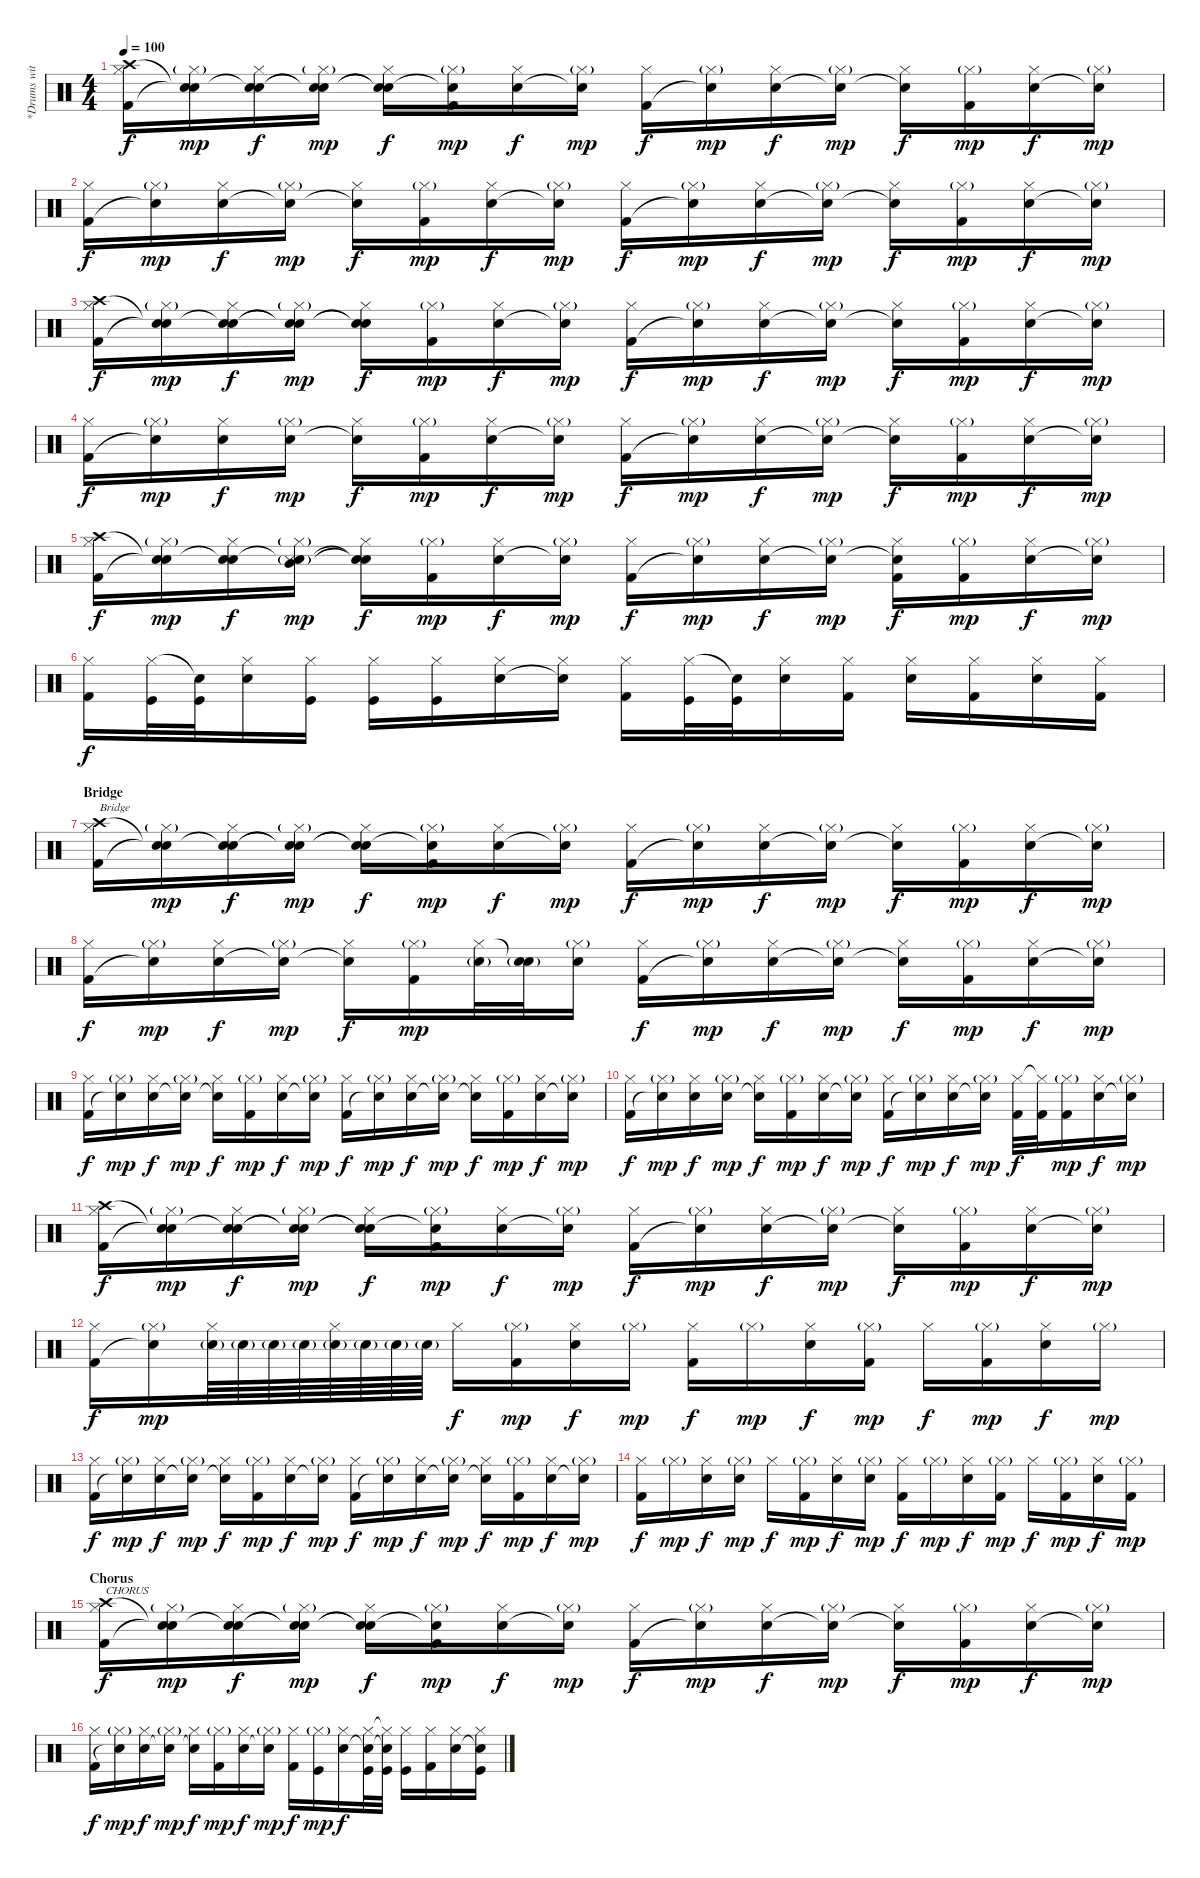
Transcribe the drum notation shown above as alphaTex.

\track ("*Drums with sampled drums (Rob and Joe)" "*Drums wit") {instrument percussion}
\staff {score}
\articulation defaults
\ts (4 4)
\tempo 100
\clef neutral
\ks c
("Crash high (hit)" "Hi-Hat (closed)" "Kick (hit) 2").16{dy f} ("Snare (hit)"{t} "Hi-Hat (closed)"{g} "Snare (hit)"{t}).16{dy mp} ("Snare (hit)"{t} "Hi-Hat (closed)" "Electric Snare (hit)").16{dy f} ("Snare (hit)"{t} "Hi-Hat (closed)"{g} "Snare (hit)"{t}).16{dy mp} ("Snare (hit)"{t} "Hi-Hat (closed)" "Snare (hit)"{t}).16{dy f} ("Snare (hit)"{t} "Hi-Hat (closed)"{g} "Kick (hit) 2").16{dy mp} ("Hi-Hat (closed)" "Electric Snare (hit)").16{dy f} ("Hi-Hat (closed)"{g} "Snare (hit)"{t}).16{dy mp} ("Hi-Hat (closed)" "Kick (hit) 2").16{dy f} ("Hi-Hat (closed)"{g} "Snare (hit)"{t}).16{dy mp} ("Hi-Hat (closed)" "Electric Snare (hit)").16{dy f} ("Hi-Hat (closed)"{g} "Snare (hit)"{t}).16{dy mp} ("Hi-Hat (closed)" "Snare (hit)"{t}).16{dy f} ("Hi-Hat (closed)"{g} "Kick (hit) 2").16{dy mp} ("Hi-Hat (closed)" "Electric Snare (hit)").16{dy f} ("Hi-Hat (closed)"{g} "Snare (hit)"{t}).16{dy mp} |
("Hi-Hat (closed)" "Kick (hit) 2").16{dy f} ("Hi-Hat (closed)"{g} "Snare (hit)"{t}).16{dy mp} ("Hi-Hat (closed)" "Electric Snare (hit)").16{dy f} ("Hi-Hat (closed)"{g} "Snare (hit)"{t}).16{dy mp} ("Hi-Hat (closed)" "Snare (hit)"{t}).16{dy f} ("Hi-Hat (closed)"{g} "Kick (hit) 2").16{dy mp} ("Hi-Hat (closed)" "Electric Snare (hit)").16{dy f} ("Hi-Hat (closed)"{g} "Snare (hit)"{t}).16{dy mp} ("Hi-Hat (closed)" "Kick (hit) 2").16{dy f} ("Hi-Hat (closed)"{g} "Snare (hit)"{t}).16{dy mp} ("Hi-Hat (closed)" "Electric Snare (hit)").16{dy f} ("Hi-Hat (closed)"{g} "Snare (hit)"{t}).16{dy mp} ("Hi-Hat (closed)" "Snare (hit)"{t}).16{dy f} ("Hi-Hat (closed)"{g} "Kick (hit) 2").16{dy mp} ("Hi-Hat (closed)" "Electric Snare (hit)").16{dy f} ("Hi-Hat (closed)"{g} "Snare (hit)"{t}).16{dy mp} |
("Crash high (hit)" "Hi-Hat (closed)" "Kick (hit) 2").16{dy f} ("Snare (hit)"{t} "Hi-Hat (closed)"{g} "Snare (hit)"{t}).16{dy mp} ("Snare (hit)"{t} "Hi-Hat (closed)" "Electric Snare (hit)").16{dy f} ("Snare (hit)"{t} "Hi-Hat (closed)"{g} "Snare (hit)"{t}).16{dy mp} ("Snare (hit)"{t} "Hi-Hat (closed)" "Snare (hit)"{t}).16{dy f} ("Hi-Hat (closed)"{g} "Kick (hit) 2").16{dy mp} ("Hi-Hat (closed)" "Electric Snare (hit)").16{dy f} ("Hi-Hat (closed)"{g} "Snare (hit)"{t}).16{dy mp} ("Hi-Hat (closed)" "Kick (hit) 2").16{dy f} ("Hi-Hat (closed)"{g} "Snare (hit)"{t}).16{dy mp} ("Hi-Hat (closed)" "Electric Snare (hit)").16{dy f} ("Hi-Hat (closed)"{g} "Snare (hit)"{t}).16{dy mp} ("Hi-Hat (closed)" "Snare (hit)"{t}).16{dy f} ("Hi-Hat (closed)"{g} "Kick (hit) 2").16{dy mp} ("Hi-Hat (closed)" "Electric Snare (hit)").16{dy f} ("Hi-Hat (closed)"{g} "Snare (hit)"{t}).16{dy mp} |
("Hi-Hat (closed)" "Kick (hit) 2").16{dy f} ("Hi-Hat (closed)"{g} "Snare (hit)"{t}).16{dy mp} ("Hi-Hat (closed)" "Electric Snare (hit)").16{dy f} ("Hi-Hat (closed)"{g} "Electric Snare (hit)").16{dy mp} ("Hi-Hat (closed)" "Snare (hit)"{t}).16{dy f} ("Hi-Hat (closed)"{g} "Kick (hit) 2").16{dy mp} ("Hi-Hat (closed)" "Electric Snare (hit)").16{dy f} ("Hi-Hat (closed)"{g} "Snare (hit)"{t}).16{dy mp} ("Hi-Hat (closed)" "Kick (hit) 2").16{dy f} ("Hi-Hat (closed)"{g} "Snare (hit)"{t}).16{dy mp} ("Hi-Hat (closed)" "Electric Snare (hit)").16{dy f} ("Hi-Hat (closed)"{g} "Snare (hit)"{t}).16{dy mp} ("Hi-Hat (closed)" "Snare (hit)"{t}).16{dy f} ("Hi-Hat (closed)"{g} "Kick (hit) 2").16{dy mp} ("Hi-Hat (closed)" "Electric Snare (hit)").16{dy f} ("Hi-Hat (closed)"{g} "Snare (hit)"{t}).16{dy mp} |
("Crash high (hit)" "Hi-Hat (closed)" "Kick (hit) 2").16{dy f} ("Snare (hit)"{t} "Hi-Hat (closed)"{g} "Snare (hit)"{t}).16{dy mp} ("Snare (hit)"{t} "Hi-Hat (closed)" "Electric Snare (hit)").16{dy f} ("Snare (hit)"{t} "Hi-Hat (closed)"{g} "Mid Tom (hit)" "Metronome (hit)"{g}).16{dy mp} ("Snare (hit)"{t} "Hi-Hat (closed)" "Snare (hit)"{t}).16{dy f} ("Hi-Hat (closed)"{g} "Kick (hit) 2").16{dy mp} ("Hi-Hat (closed)" "Electric Snare (hit)").16{dy f} ("Hi-Hat (closed)"{g} "Snare (hit)"{t}).16{dy mp} ("Hi-Hat (closed)" "Kick (hit) 2").16{dy f} ("Hi-Hat (closed)"{g} "Snare (hit)"{t}).16{dy mp} ("Hi-Hat (closed)" "Electric Snare (hit)").16{dy f} ("Hi-Hat (closed)"{g} "Snare (hit)"{t}).16{dy mp} ("Hi-Hat (closed)" "Snare (hit)"{t} "Kick (hit) 2").16{dy f} ("Hi-Hat (closed)"{g} "Kick (hit) 2").16{dy mp} ("Hi-Hat (closed)" "Electric Snare (hit)").16{dy f} ("Hi-Hat (closed)"{g} "Snare (hit)"{t}).16{dy mp} |
("Hi-Hat (closed)" "Kick (hit) 2").16{dy f} ("Hi-Hat (closed)" "Kick (hit)").32 ("Snare (hit)"{t} "Kick (hit)").32 ("Hi-Hat (closed)" "Electric Snare (hit)").16 ("Hi-Hat (closed)" "Kick (hit)").16 ("Hi-Hat (closed)" "Kick (hit)").16 ("Hi-Hat (closed)" "Kick (hit)").16 ("Hi-Hat (closed)" "Electric Snare (hit)").16 ("Hi-Hat (closed)" "Snare (hit)"{t}).16 ("Hi-Hat (closed)" "Kick (hit) 2").16 ("Hi-Hat (closed)" "Kick (hit)").32 ("Snare (hit)"{t} "Kick (hit)").32 ("Hi-Hat (closed)" "Electric Snare (hit)").16 ("Hi-Hat (closed)" "Kick (hit) 2").16 ("Hi-Hat (closed)" "Electric Snare (hit)").16 ("Hi-Hat (closed)" "Kick (hit) 2").16 ("Hi-Hat (closed)" "Electric Snare (hit)").16 ("Hi-Hat (closed)" "Kick (hit) 2").16 |
\section ("" "Bridge")
("Crash high (hit)" "Hi-Hat (closed)" "Kick (hit) 2").16{txt "Bridge"} ("Snare (hit)"{t} "Hi-Hat (closed)"{g} "Snare (hit)"{t}).16{dy mp} ("Snare (hit)"{t} "Hi-Hat (closed)" "Electric Snare (hit)").16{dy f} ("Snare (hit)"{t} "Hi-Hat (closed)"{g} "Snare (hit)"{t}).16{dy mp} ("Snare (hit)"{t} "Hi-Hat (closed)" "Snare (hit)"{t}).16{dy f} ("Snare (hit)"{t} "Hi-Hat (closed)"{g} "Kick (hit) 2").16{dy mp} ("Hi-Hat (closed)" "Electric Snare (hit)").16{dy f} ("Hi-Hat (closed)"{g} "Snare (hit)"{t}).16{dy mp} ("Hi-Hat (closed)" "Kick (hit) 2").16{dy f} ("Hi-Hat (closed)"{g} "Snare (hit)"{t}).16{dy mp} ("Hi-Hat (closed)" "Electric Snare (hit)").16{dy f} ("Hi-Hat (closed)"{g} "Snare (hit)"{t}).16{dy mp} ("Hi-Hat (closed)" "Snare (hit)"{t}).16{dy f} ("Hi-Hat (closed)"{g} "Kick (hit) 2").16{dy mp} ("Hi-Hat (closed)" "Electric Snare (hit)").16{dy f} ("Hi-Hat (closed)"{g} "Snare (hit)"{t}).16{dy mp} |
("Hi-Hat (closed)" "Kick (hit) 2").16{dy f} ("Hi-Hat (closed)"{g} "Snare (hit)"{t}).16{dy mp} ("Hi-Hat (closed)" "Electric Snare (hit)").16{dy f} ("Hi-Hat (closed)"{g} "Snare (hit)"{t}).16{dy mp} ("Hi-Hat (closed)" "Snare (hit)"{t}).16{dy f} ("Hi-Hat (closed)"{g} "Kick (hit) 2").16{dy mp} ("Hi-Hat (closed)" "Electric Snare (hit)"{g}).32 ("Snare (hit)"{t} "Electric Snare (hit)"{g}).32 ("Hi-Hat (closed)"{g} "Electric Snare (hit)").16 ("Hi-Hat (closed)" "Kick (hit) 2").16{dy f} ("Hi-Hat (closed)"{g} "Snare (hit)"{t}).16{dy mp} ("Hi-Hat (closed)" "Electric Snare (hit)").16{dy f} ("Hi-Hat (closed)"{g} "Snare (hit)"{t}).16{dy mp} ("Hi-Hat (closed)" "Snare (hit)"{t}).16{dy f} ("Hi-Hat (closed)"{g} "Kick (hit) 2").16{dy mp} ("Hi-Hat (closed)" "Electric Snare (hit)").16{dy f} ("Hi-Hat (closed)"{g} "Snare (hit)"{t}).16{dy mp} |
("Hi-Hat (closed)" "Kick (hit) 2").16{dy f} ("Hi-Hat (closed)"{g} "Snare (hit)"{t}).16{dy mp} ("Hi-Hat (closed)" "Electric Snare (hit)").16{dy f} ("Hi-Hat (closed)"{g} "Snare (hit)"{t}).16{dy mp} ("Hi-Hat (closed)" "Snare (hit)"{t}).16{dy f} ("Hi-Hat (closed)"{g} "Kick (hit) 2").16{dy mp} ("Hi-Hat (closed)" "Electric Snare (hit)").16{dy f} ("Hi-Hat (closed)"{g} "Snare (hit)"{t}).16{dy mp} ("Hi-Hat (closed)" "Kick (hit) 2").16{dy f} ("Hi-Hat (closed)"{g} "Snare (hit)"{t}).16{dy mp} ("Hi-Hat (closed)" "Electric Snare (hit)").16{dy f} ("Hi-Hat (closed)"{g} "Snare (hit)"{t}).16{dy mp} ("Hi-Hat (closed)" "Snare (hit)"{t}).16{dy f} ("Hi-Hat (closed)"{g} "Kick (hit) 2").16{dy mp} ("Hi-Hat (closed)" "Electric Snare (hit)").16{dy f} ("Hi-Hat (closed)"{g} "Snare (hit)"{t}).16{dy mp} |
("Hi-Hat (closed)" "Kick (hit) 2").16{dy f} ("Hi-Hat (closed)"{g} "Snare (hit)"{t}).16{dy mp} ("Hi-Hat (closed)" "Electric Snare (hit)").16{dy f} ("Hi-Hat (closed)"{g} "Electric Snare (hit)").16{dy mp} ("Hi-Hat (closed)" "Snare (hit)"{t}).16{dy f} ("Hi-Hat (closed)"{g} "Kick (hit) 2").16{dy mp} ("Hi-Hat (closed)" "Electric Snare (hit)").16{dy f} ("Hi-Hat (closed)"{g} "Snare (hit)"{t}).16{dy mp} ("Hi-Hat (closed)" "Kick (hit) 2").16{dy f} ("Hi-Hat (closed)"{g} "Snare (hit)"{t}).16{dy mp} ("Hi-Hat (closed)" "Electric Snare (hit)").16{dy f} ("Hi-Hat (closed)"{g} "Snare (hit)"{t}).16{dy mp} ("Hi-Hat (closed)" "Kick (hit) 2").32{dy f} ("Hi-Hat (closed)"{t} "Kick (hit) 2").32 ("Hi-Hat (closed)"{g} "Kick (hit) 2").16{dy mp} ("Hi-Hat (closed)" "Electric Snare (hit)").16{dy f} ("Hi-Hat (closed)"{g} "Snare (hit)"{t}).16{dy mp} |
("Crash high (hit)" "Hi-Hat (closed)" "Kick (hit) 2").16{dy f} ("Snare (hit)"{t} "Hi-Hat (closed)"{g} "Snare (hit)"{t}).16{dy mp} ("Snare (hit)"{t} "Hi-Hat (closed)" "Electric Snare (hit)").16{dy f} ("Snare (hit)"{t} "Hi-Hat (closed)"{g} "Snare (hit)"{t}).16{dy mp} ("Snare (hit)"{t} "Hi-Hat (closed)" "Snare (hit)"{t}).16{dy f} ("Snare (hit)"{t} "Hi-Hat (closed)"{g} "Kick (hit) 2").16{dy mp} ("Hi-Hat (closed)" "Electric Snare (hit)").16{dy f} ("Hi-Hat (closed)"{g} "Snare (hit)"{t}).16{dy mp} ("Hi-Hat (closed)" "Kick (hit) 2").16{dy f} ("Hi-Hat (closed)"{g} "Snare (hit)"{t}).16{dy mp} ("Hi-Hat (closed)" "Electric Snare (hit)").16{dy f} ("Hi-Hat (closed)"{g} "Snare (hit)"{t}).16{dy mp} ("Hi-Hat (closed)" "Snare (hit)"{t}).16{dy f} ("Hi-Hat (closed)"{g} "Kick (hit) 2").16{dy mp} ("Hi-Hat (closed)" "Electric Snare (hit)").16{dy f} ("Hi-Hat (closed)"{g} "Snare (hit)"{t}).16{dy mp} |
("Hi-Hat (closed)" "Kick (hit) 2").16{dy f} ("Hi-Hat (closed)"{g} "Snare (hit)"{t}).16{dy mp} ("Hi-Hat (closed)" "Electric Snare (hit)"{g}).64 "Electric Snare (hit)"{g}.64 "Electric Snare (hit)"{g}.64 "Electric Snare (hit)"{g}.64 ("Hi-Hat (closed)" "Electric Snare (hit)"{g}).64 "Electric Snare (hit)"{g}.64 "Electric Snare (hit)"{g}.64 "Electric Snare (hit)"{g}.64 "Hi-Hat (closed)".16{dy f} ("Hi-Hat (closed)"{g} "Kick (hit) 2").16{dy mp} ("Hi-Hat (closed)" "Electric Snare (hit)").16{dy f} "Hi-Hat (closed)"{g}.16{dy mp} ("Hi-Hat (closed)" "Kick (hit) 2").16{dy f} "Hi-Hat (closed)"{g}.16{dy mp} ("Hi-Hat (closed)" "Electric Snare (hit)").16{dy f} ("Hi-Hat (closed)"{g} "Kick (hit) 2").16{dy mp} "Hi-Hat (closed)".16{dy f} ("Hi-Hat (closed)"{g} "Kick (hit) 2").16{dy mp} ("Hi-Hat (closed)" "Electric Snare (hit)").16{dy f} "Hi-Hat (closed)"{g}.16{dy mp} |
("Hi-Hat (closed)" "Kick (hit) 2").16{dy f} ("Hi-Hat (closed)"{g} "Snare (hit)"{t}).16{dy mp} ("Hi-Hat (closed)" "Electric Snare (hit)").16{dy f} ("Hi-Hat (closed)"{g} "Snare (hit)"{t}).16{dy mp} ("Hi-Hat (closed)" "Snare (hit)"{t}).16{dy f} ("Hi-Hat (closed)"{g} "Kick (hit) 2").16{dy mp} ("Hi-Hat (closed)" "Electric Snare (hit)").16{dy f} ("Hi-Hat (closed)"{g} "Snare (hit)"{t}).16{dy mp} ("Hi-Hat (closed)" "Kick (hit) 2").16{dy f} ("Hi-Hat (closed)"{g} "Snare (hit)"{t}).16{dy mp} ("Hi-Hat (closed)" "Electric Snare (hit)").16{dy f} ("Hi-Hat (closed)"{g} "Snare (hit)"{t}).16{dy mp} ("Hi-Hat (closed)" "Snare (hit)"{t}).16{dy f} ("Hi-Hat (closed)"{g} "Kick (hit) 2").16{dy mp} ("Hi-Hat (closed)" "Electric Snare (hit)").16{dy f} ("Hi-Hat (closed)"{g} "Snare (hit)"{t}).16{dy mp} |
("Hi-Hat (closed)" "Kick (hit) 2").16{dy f} "Hi-Hat (closed)"{g}.16{dy mp} ("Hi-Hat (closed)" "Electric Snare (hit)").16{dy f} ("Hi-Hat (closed)"{g} "Electric Snare (hit)").16{dy mp} "Hi-Hat (closed)".16{dy f} ("Hi-Hat (closed)"{g} "Kick (hit) 2").16{dy mp} ("Hi-Hat (closed)" "Electric Snare (hit)").16{dy f} ("Hi-Hat (closed)"{g} "Electric Snare (hit)").16{dy mp} ("Hi-Hat (closed)" "Kick (hit) 2").16{dy f} "Hi-Hat (closed)"{g}.16{dy mp} ("Hi-Hat (closed)" "Electric Snare (hit)").16{dy f} ("Hi-Hat (closed)"{g} "Kick (hit) 2").16{dy mp} "Hi-Hat (closed)".16{dy f} ("Hi-Hat (closed)"{g} "Kick (hit) 2").16{dy mp} ("Hi-Hat (closed)" "Electric Snare (hit)").16{dy f} ("Hi-Hat (closed)"{g} "Kick (hit) 2").16{dy mp} |
\section ("" "Chorus")
("Crash high (hit)" "Hi-Hat (closed)" "Kick (hit) 2").16{txt "CHORUS" dy f} ("Snare (hit)"{t} "Hi-Hat (closed)"{g} "Snare (hit)"{t}).16{dy mp} ("Snare (hit)"{t} "Hi-Hat (closed)" "Electric Snare (hit)").16{dy f} ("Snare (hit)"{t} "Hi-Hat (closed)"{g} "Snare (hit)"{t}).16{dy mp} ("Snare (hit)"{t} "Hi-Hat (closed)" "Snare (hit)"{t}).16{dy f} ("Snare (hit)"{t} "Hi-Hat (closed)"{g} "Kick (hit) 2").16{dy mp} ("Hi-Hat (closed)" "Electric Snare (hit)").16{dy f} ("Hi-Hat (closed)"{g} "Snare (hit)"{t}).16{dy mp} ("Hi-Hat (closed)" "Kick (hit) 2").16{dy f} ("Hi-Hat (closed)"{g} "Snare (hit)"{t}).16{dy mp} ("Hi-Hat (closed)" "Electric Snare (hit)").16{dy f} ("Hi-Hat (closed)"{g} "Snare (hit)"{t}).16{dy mp} ("Hi-Hat (closed)" "Snare (hit)"{t}).16{dy f} ("Hi-Hat (closed)"{g} "Kick (hit) 2").16{dy mp} ("Hi-Hat (closed)" "Electric Snare (hit)").16{dy f} ("Hi-Hat (closed)"{g} "Snare (hit)"{t}).16{dy mp} |
("Hi-Hat (closed)" "Kick (hit) 2").16{dy f} ("Hi-Hat (closed)"{g} "Snare (hit)"{t}).16{dy mp} ("Hi-Hat (closed)" "Electric Snare (hit)").16{dy f} ("Hi-Hat (closed)"{g} "Snare (hit)"{t}).16{dy mp} ("Hi-Hat (closed)" "Snare (hit)"{t}).16{dy f} ("Hi-Hat (closed)"{g} "Kick (hit) 2").16{dy mp} ("Hi-Hat (closed)" "Electric Snare (hit)").16{dy f} ("Hi-Hat (closed)"{g} "Snare (hit)"{t}).16{dy mp} ("Hi-Hat (closed)" "Kick (hit) 2").16{dy f} ("Hi-Hat (closed)"{g} "Kick (hit)").16{dy mp} ("Hi-Hat (closed)" "Electric Snare (hit)").16{dy f} ("Hi-Hat (closed)" "Snare (hit)"{t} "Kick (hit)").32 ("Hi-Hat (closed)"{t} "Snare (hit)"{t} "Kick (hit)").32 ("Hi-Hat (closed)" "Kick (hit)").16 ("Hi-Hat (closed)" "Kick (hit) 2").16 ("Hi-Hat (closed)" "Electric Snare (hit)").16 ("Hi-Hat (closed)" "Snare (hit)"{t} "Kick (hit)").16
